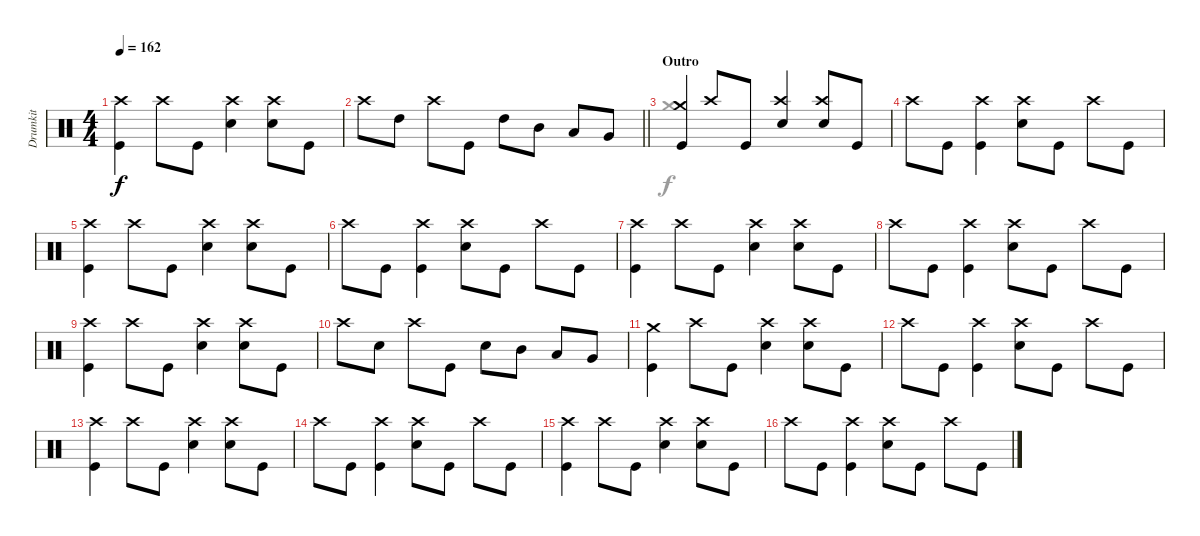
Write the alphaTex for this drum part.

\track ("Drumkit" "Drumkit") {instrument percussion}
\staff {score}
\articulation defaults
\voice
\ts (4 4)
\tempo 162
\clef neutral
\ks c
("Kick (hit)" "Crash high (hit)").4{dy f} "Crash high (hit)".8 "Kick (hit)".8 ("Snare (hit) 2" "Crash high (hit)").4 ("Snare (hit) 2" "Crash high (hit)").8 "Kick (hit)".8 |
\barLineRight lightlight "Crash high (hit)".8 "High Tom (hit)".8 "Crash high (hit)".8 "Kick (hit)".8 "High Tom (hit)".8 "Mid Tom (hit)".8 "Low Tom (hit)".8 "Very Low Tom (hit)".8
|
\section ("" "Outro")
("Kick (hit)" "Crash medium (hit)").4 "Crash high (hit)".8 "Kick (hit)".8 ("Snare (hit) 2" "Crash high (hit)").4 ("Snare (hit) 2" "Crash high (hit)").8 "Kick (hit)".8 |
"Crash high (hit)".8 "Kick (hit)".8 ("Kick (hit)" "Crash high (hit)").4 ("Snare (hit) 2" "Crash high (hit)").8 "Kick (hit)".8 "Crash high (hit)".8 "Kick (hit)".8 |
("Kick (hit)" "Crash high (hit)").4 "Crash high (hit)".8 "Kick (hit)".8 ("Snare (hit) 2" "Crash high (hit)").4 ("Snare (hit) 2" "Crash high (hit)").8 "Kick (hit)".8 |
"Crash high (hit)".8 "Kick (hit)".8 ("Kick (hit)" "Crash high (hit)").4 ("Snare (hit) 2" "Crash high (hit)").8 "Kick (hit)".8 "Crash high (hit)".8 "Kick (hit)".8 |
("Kick (hit)" "Crash high (hit)").4 "Crash high (hit)".8 "Kick (hit)".8 ("Snare (hit) 2" "Crash high (hit)").4 ("Snare (hit) 2" "Crash high (hit)").8 "Kick (hit)".8 |
"Crash high (hit)".8 "Kick (hit)".8 ("Kick (hit)" "Crash high (hit)").4 ("Snare (hit) 2" "Crash high (hit)").8 "Kick (hit)".8 "Crash high (hit)".8 "Kick (hit)".8 |
("Kick (hit)" "Crash high (hit)").4 "Crash high (hit)".8 "Kick (hit)".8 ("Snare (hit) 2" "Crash high (hit)").4 ("Snare (hit) 2" "Crash high (hit)").8 "Kick (hit)".8 |
"Crash high (hit)".8 "Snare (hit) 2".8 "Crash high (hit)".8 "Kick (hit)".8 "Snare (hit) 2".8 "Mid Tom (hit)".8 "Low Tom (hit)".8 "Very Low Tom (hit)".8 |
("Kick (hit)" "Crash medium (hit)").4 "Crash high (hit)".8 "Kick (hit)".8 ("Snare (hit) 2" "Crash high (hit)").4 ("Snare (hit) 2" "Crash high (hit)").8 "Kick (hit)".8 |
"Crash high (hit)".8 "Kick (hit)".8 ("Kick (hit)" "Crash high (hit)").4 ("Snare (hit) 2" "Crash high (hit)").8 "Kick (hit)".8 "Crash high (hit)".8 "Kick (hit)".8 |
("Kick (hit)" "Crash high (hit)").4 "Crash high (hit)".8 "Kick (hit)".8 ("Snare (hit) 2" "Crash high (hit)").4 ("Snare (hit) 2" "Crash high (hit)").8 "Kick (hit)".8 |
"Crash high (hit)".8 "Kick (hit)".8 ("Kick (hit)" "Crash high (hit)").4 ("Snare (hit) 2" "Crash high (hit)").8 "Kick (hit)".8 "Crash high (hit)".8 "Kick (hit)".8 |
("Kick (hit)" "Crash high (hit)").4 "Crash high (hit)".8 "Kick (hit)".8 ("Snare (hit) 2" "Crash high (hit)").4 ("Snare (hit) 2" "Crash high (hit)").8 "Kick (hit)".8 |
"Crash high (hit)".8 "Kick (hit)".8 ("Kick (hit)" "Crash high (hit)").4 ("Snare (hit) 2" "Crash high (hit)").8 "Kick (hit)".8 "Crash high (hit)".8 "Kick (hit)".8
\voice
\clef neutral
\ottava regular
\simile none
\ks c
|
\barLineRight lightlight
|
"Crash medium (hit)".1 |
|
|
|
|
|
|
|
|
|
|
|
|
